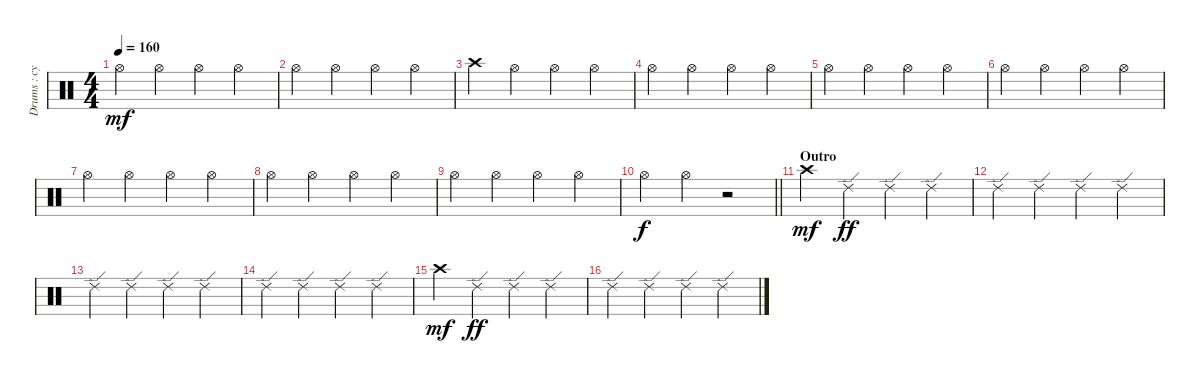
\track ("Drums : cymbals" "Drums : cy") {instrument percussion}
\staff {score}
\articulation defaults
\ts (4 4)
\tempo 160
\clef neutral
\ks c "Hi-Hat (open)".4{dy mf} "Hi-Hat (open)".4 "Hi-Hat (open)".4 "Hi-Hat (open)".4
|
"Hi-Hat (open)".4 "Hi-Hat (open)".4 "Hi-Hat (open)".4 "Hi-Hat (open)".4 |
"Crash high (hit)".4 "Hi-Hat (open)".4 "Hi-Hat (open)".4 "Hi-Hat (open)".4 |
"Hi-Hat (open)".4 "Hi-Hat (open)".4 "Hi-Hat (open)".4 "Hi-Hat (open)".4 |
"Hi-Hat (open)".4 "Hi-Hat (open)".4 "Hi-Hat (open)".4 "Hi-Hat (open)".4 |
"Hi-Hat (open)".4 "Hi-Hat (open)".4 "Hi-Hat (open)".4 "Hi-Hat (open)".4 |
"Hi-Hat (open)".4 "Hi-Hat (open)".4 "Hi-Hat (open)".4 "Hi-Hat (open)".4 |
"Hi-Hat (open)".4 "Hi-Hat (open)".4 "Hi-Hat (open)".4 "Hi-Hat (open)".4 |
"Hi-Hat (open)".4 "Hi-Hat (open)".4 "Hi-Hat (open)".4 "Hi-Hat (open)".4 |
\barLineRight lightlight "Hi-Hat (open)".4{dy f} "Hi-Hat (open)".4
r.2 |
\section ("" "Outro")
"Crash high (hit)".4{dy mf} "Ride (edge) 2".4{dy ff} "Ride (edge) 2".4 "Ride (edge) 2".4 |
"Ride (edge) 2".4 "Ride (edge) 2".4 "Ride (edge) 2".4 "Ride (edge) 2".4 |
"Ride (edge) 2".4 "Ride (edge) 2".4 "Ride (edge) 2".4 "Ride (edge) 2".4 |
"Ride (edge) 2".4 "Ride (edge) 2".4 "Ride (edge) 2".4 "Ride (edge) 2".4 |
"Crash high (hit)".4{dy mf} "Ride (edge) 2".4{dy ff} "Ride (edge) 2".4 "Ride (edge) 2".4 |
"Ride (edge) 2".4 "Ride (edge) 2".4 "Ride (edge) 2".4 "Ride (edge) 2".4
